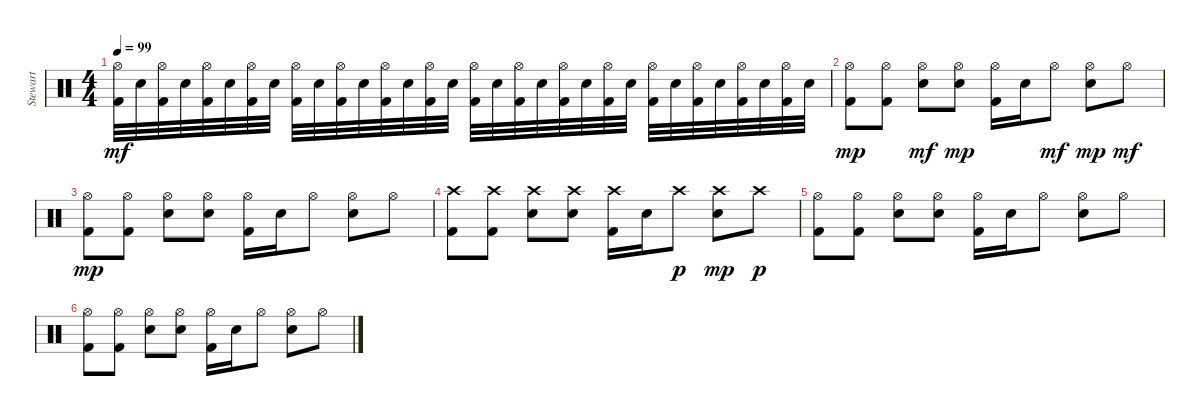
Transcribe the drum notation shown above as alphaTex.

\track ("Stewart" "Stewart") {instrument percussion}
\staff {score}
\articulation defaults
\ts (4 4)
\tempo 99
\clef neutral
\ks c
("Hi-Hat (open)" "Kick (hit) 2").32{dy mf} "Snare (hit) 2".32 ("Hi-Hat (open)" "Kick (hit) 2").32 "Snare (hit) 2".32 ("Hi-Hat (open)" "Kick (hit) 2").32 "Snare (hit) 2".32 ("Hi-Hat (open)" "Kick (hit) 2").32 "Snare (hit) 2".32 ("Hi-Hat (open)" "Kick (hit) 2").32 "Snare (hit) 2".32 ("Hi-Hat (open)" "Kick (hit) 2").32 "Snare (hit) 2".32 ("Hi-Hat (open)" "Kick (hit) 2").32 "Snare (hit) 2".32 ("Hi-Hat (open)" "Kick (hit) 2").32 "Snare (hit) 2".32 ("Hi-Hat (open)" "Kick (hit) 2").32 "Snare (hit) 2".32 ("Hi-Hat (open)" "Kick (hit) 2").32 "Snare (hit) 2".32 ("Hi-Hat (open)" "Kick (hit) 2").32 "Snare (hit) 2".32 ("Hi-Hat (open)" "Kick (hit) 2").32 "Snare (hit) 2".32 ("Hi-Hat (open)" "Kick (hit) 2").32 "Snare (hit) 2".32 ("Hi-Hat (open)" "Kick (hit) 2").32 "Snare (hit) 2".32 ("Hi-Hat (open)" "Kick (hit) 2").32 "Snare (hit) 2".32 ("Hi-Hat (open)" "Kick (hit) 2").32 "Snare (hit) 2".32 |
("Hi-Hat (open)" "Kick (hit) 2").8{dy mp} ("Hi-Hat (open)" "Kick (hit) 2").8 ("Hi-Hat (open)" "Snare (hit) 2").8{dy mf} ("Hi-Hat (open)" "Snare (hit) 2").8{dy mp} ("Hi-Hat (open)" "Kick (hit) 2").16 "Snare (hit) 2".16 "Hi-Hat (open)".8{dy mf} ("Hi-Hat (open)" "Snare (hit) 2").8{dy mp} "Hi-Hat (open)".8{dy mf} |
("Hi-Hat (open)" "Kick (hit) 2").8{dy mp} ("Hi-Hat (open)" "Kick (hit) 2").8 ("Hi-Hat (open)" "Snare (hit) 2").8 ("Hi-Hat (open)" "Snare (hit) 2").8 ("Hi-Hat (open)" "Kick (hit) 2").16 "Snare (hit) 2".16 "Hi-Hat (open)".8 ("Hi-Hat (open)" "Snare (hit) 2").8 "Hi-Hat (open)".8 |
("Crash high (hit)" "Kick (hit) 2").8 ("Crash high (hit)" "Kick (hit) 2").8 ("Crash high (hit)" "Snare (hit) 2").8 ("Crash high (hit)" "Snare (hit) 2").8 ("Crash high (hit)" "Kick (hit) 2").16 "Snare (hit) 2".16 "Crash high (hit)".8{dy p} ("Crash high (hit)" "Snare (hit) 2").8{dy mp} "Crash high (hit)".8{dy p} |
("Hi-Hat (open)" "Kick (hit) 2").8 ("Hi-Hat (open)" "Kick (hit) 2").8 ("Hi-Hat (open)" "Snare (hit) 2").8 ("Hi-Hat (open)" "Snare (hit) 2").8 ("Hi-Hat (open)" "Kick (hit) 2").16 "Snare (hit) 2".16 "Hi-Hat (open)".8 ("Hi-Hat (open)" "Snare (hit) 2").8 "Hi-Hat (open)".8 |
("Hi-Hat (open)" "Kick (hit) 2").8 ("Hi-Hat (open)" "Kick (hit) 2").8 ("Hi-Hat (open)" "Snare (hit) 2").8 ("Hi-Hat (open)" "Snare (hit) 2").8 ("Hi-Hat (open)" "Kick (hit) 2").16 "Snare (hit) 2".16 "Hi-Hat (open)".8 ("Hi-Hat (open)" "Snare (hit) 2").8 "Hi-Hat (open)".8
